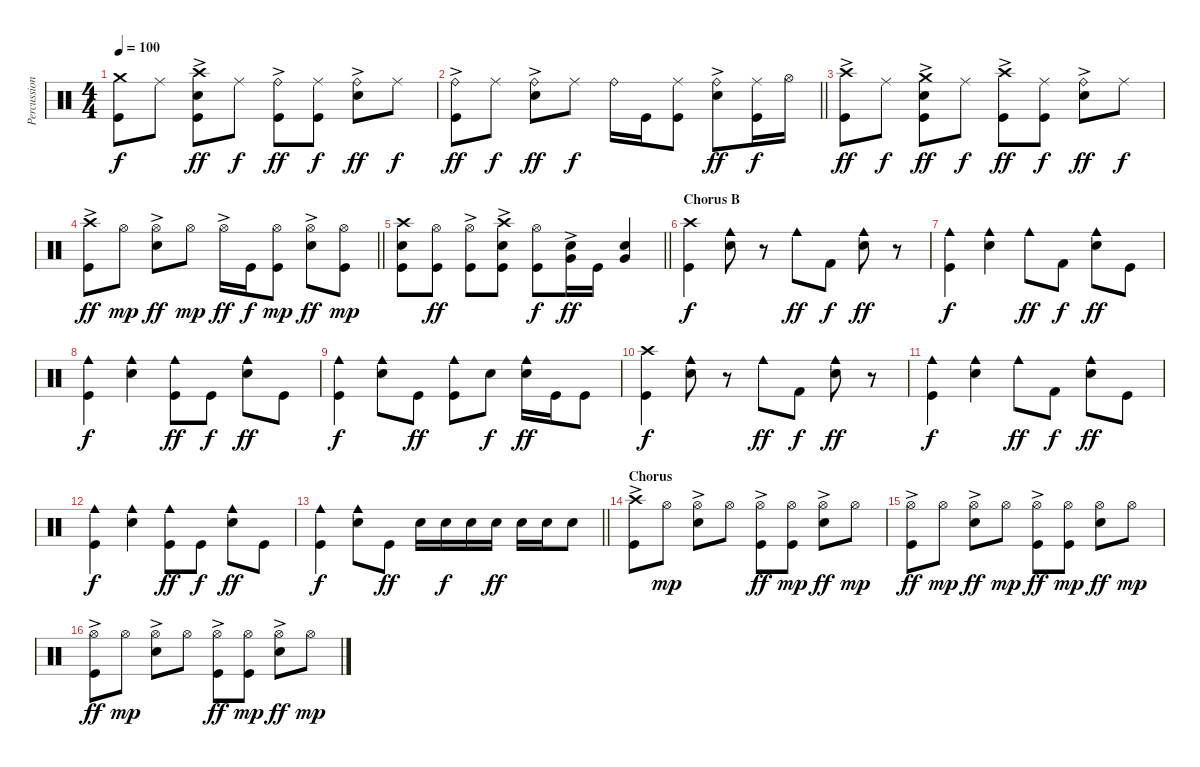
\track ("Percussions" "Percussion") {instrument percussion}
\staff {score}
\articulation defaults
\ts (4 4)
\tempo 100
\clef neutral
\ks c
("Crash medium (hit)" "Kick (hit)").8{dy f} "Ride (middle)".8 ("Crash high (hit)" "Snare (hit) 2"{ac} "Kick (hit)").8{dy ff} "Ride (middle)".8{dy f} ("Ride (bell)"{ac} "Kick (hit)").8{dy ff} ("Ride (middle)" "Kick (hit)").8{dy f} ("Ride (bell)"{ac} "Snare (hit) 2"{ac}).8{dy ff} "Ride (middle)".8{dy f} |
\barLineRight lightlight
("Ride (bell)"{ac} "Kick (hit)").8{dy ff} "Ride (middle)".8{dy f} ("Ride (bell)"{ac} "Snare (hit) 2").8{dy ff} "Ride (middle)".8{dy f} "Ride (bell)".16 "Kick (hit)".16 ("Ride (middle)" "Kick (hit)").8 ("Ride (bell)" "Snare (hit) 2"{ac}).8{dy ff} ("Ride (middle)" "Kick (hit)").16{dy f} "Hi-Hat (open)".16 |
("Crash high (hit)"{ac} "Kick (hit)").8{dy ff} "Ride (middle)".8{dy f} ("Crash medium (hit)"{ac} "Snare (hit) 2"{ac} "Kick (hit)").8{dy ff} "Ride (middle)".8{dy f} ("Crash high (hit)"{ac} "Kick (hit)").8{dy ff} ("Ride (middle)" "Kick (hit)").8{dy f} ("Ride (bell)"{ac} "Snare (hit) 2"{ac}).8{dy ff} "Ride (middle)".8{dy f} |
\barLineRight lightlight
("Crash high (hit)"{ac} "Kick (hit)").8{dy ff} "Hi-Hat (open)".8{dy mp} ("Hi-Hat (open)"{ac} "Snare (hit) 2").8{dy ff} "Hi-Hat (open)".8{dy mp} "Hi-Hat (open)"{ac}.16{dy ff} "Kick (hit)".16{dy f} ("Hi-Hat (open)" "Kick (hit)").8{dy mp} ("Hi-Hat (open)"{ac} "Snare (hit) 2"{ac}).8{dy ff} ("Hi-Hat (open)" "Kick (hit)").8{dy mp} |
\barLineRight lightlight
("Crash high (hit)" "Snare (hit) 2" "Kick (hit)").8 ("Hi-Hat (open)" "Kick (hit)").8{dy ff} ("Hi-Hat (open)"{ac} "Kick (hit)").8 ("Crash high (hit)"{ac} "Snare (hit) 2"{ac} "Kick (hit)").8 ("Hi-Hat (open)" "Kick (hit)").8{dy f} ("Snare (hit) 2"{ac} "Very Low Tom (hit)").16{dy ff} "Kick (hit)".16 ("Snare (hit) 2" "Very Low Tom (hit)").4 |
\section ("" "Chorus B")
("Crash high (hit)" "Kick (hit)").4{dy f} ("Cowbell medium (hit)" "Snare (hit) 2").8 r.8 "Cowbell medium (hit)".8{dy ff} "Kick (hit) 2".8{dy f} ("Cowbell medium (hit)" "Snare (hit) 2").8{dy ff} r.8 |
("Cowbell medium (hit)" "Kick (hit)").4{dy f} ("Cowbell medium (hit)" "Snare (hit) 2").4 "Cowbell medium (hit)".8{dy ff} "Kick (hit) 2".8{dy f} ("Cowbell medium (hit)" "Snare (hit) 2").8{dy ff} "Kick (hit)".8 |
("Cowbell medium (hit)" "Kick (hit)").4{dy f} ("Cowbell medium (hit)" "Snare (hit) 2").4 ("Cowbell medium (hit)" "Kick (hit)").8{dy ff} "Kick (hit)".8{dy f} ("Cowbell medium (hit)" "Snare (hit) 2").8{dy ff} "Kick (hit)".8 |
("Cowbell medium (hit)" "Kick (hit)").4{dy f} ("Cowbell medium (hit)" "Snare (hit) 2").8 "Kick (hit)".8{dy ff} ("Cowbell medium (hit)" "Kick (hit)").8 "Snare (hit) 2".8{dy f} ("Cowbell medium (hit)" "Snare (hit) 2").16{dy ff} "Kick (hit)".16 "Kick (hit)".8 |
("Crash high (hit)" "Kick (hit)").4{dy f} ("Cowbell medium (hit)" "Snare (hit) 2").8 r.8 "Cowbell medium (hit)".8{dy ff} "Kick (hit) 2".8{dy f} ("Cowbell medium (hit)" "Snare (hit) 2").8{dy ff} r.8 |
("Cowbell medium (hit)" "Kick (hit)").4{dy f} ("Cowbell medium (hit)" "Snare (hit) 2").4 "Cowbell medium (hit)".8{dy ff} "Kick (hit) 2".8{dy f} ("Cowbell medium (hit)" "Snare (hit) 2").8{dy ff} "Kick (hit)".8 |
("Cowbell medium (hit)" "Kick (hit)").4{dy f} ("Cowbell medium (hit)" "Snare (hit) 2").4 ("Cowbell medium (hit)" "Kick (hit)").8{dy ff} "Kick (hit)".8{dy f} ("Cowbell medium (hit)" "Snare (hit) 2").8{dy ff} "Kick (hit)".8 |
\barLineRight lightlight
("Cowbell medium (hit)" "Kick (hit)").4{dy f} ("Cowbell medium (hit)" "Snare (hit) 2").8 "Kick (hit)".8{dy ff} "Snare (hit) 2".16 "Snare (hit) 2".16{dy f} "Snare (hit) 2".16 "Snare (hit) 2".16{dy ff} "Snare (hit) 2".16 "Snare (hit) 2".16 "Snare (hit) 2".8 |
\section ("" "Chorus")
("Crash high (hit)"{ac} "Kick (hit)").8 "Hi-Hat (open)".8{dy mp} ("Hi-Hat (open)"{ac} "Snare (hit) 2").8 "Hi-Hat (open)".8 ("Hi-Hat (open)"{ac} "Kick (hit)").8{dy ff} ("Hi-Hat (open)" "Kick (hit)").8{dy mp} ("Hi-Hat (open)"{ac} "Snare (hit) 2").8{dy ff} "Hi-Hat (open)".8{dy mp} |
("Hi-Hat (open)"{ac} "Kick (hit)").8{dy ff} "Hi-Hat (open)".8{dy mp} ("Hi-Hat (open)"{ac} "Snare (hit) 2").8{dy ff} "Hi-Hat (open)".8{dy mp} ("Hi-Hat (open)"{ac} "Kick (hit)").8{dy ff} ("Hi-Hat (open)" "Kick (hit)").8{dy mp} ("Hi-Hat (open)" "Snare (hit) 2").8{dy ff} "Hi-Hat (open)".8{dy mp} |
("Hi-Hat (open)"{ac} "Kick (hit)").8{dy ff} "Hi-Hat (open)".8{dy mp} ("Hi-Hat (open)"{ac} "Snare (hit) 2").8 "Hi-Hat (open)".8 ("Hi-Hat (open)"{ac} "Kick (hit)").8{dy ff} ("Hi-Hat (open)" "Kick (hit)").8{dy mp} ("Hi-Hat (open)"{ac} "Snare (hit) 2").8{dy ff} "Hi-Hat (open)".8{dy mp}
